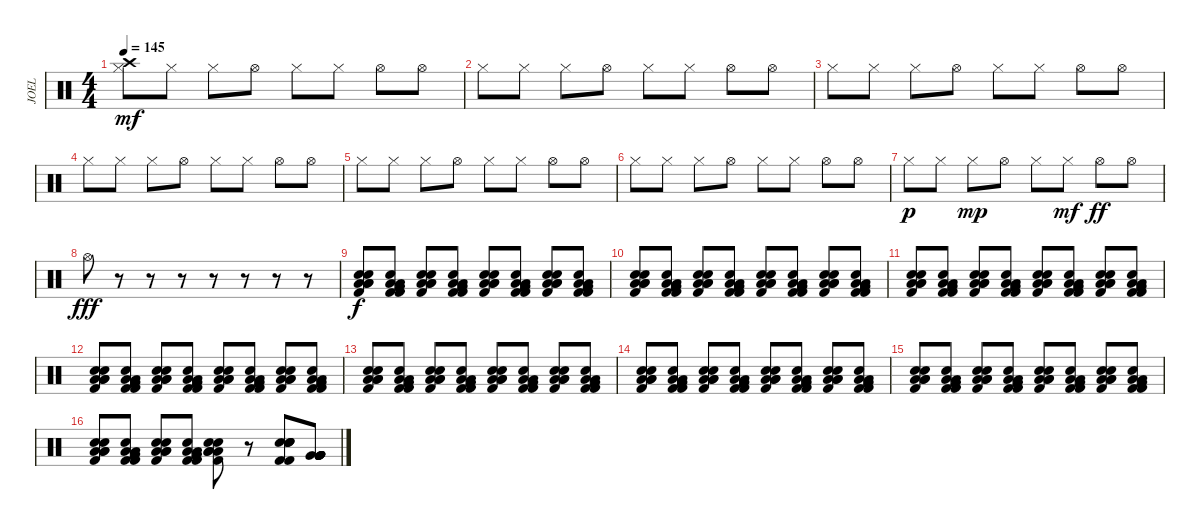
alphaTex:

\track ("JOEL" "JOEL") {instrument percussion}
\staff {score}
\articulation defaults
\ts (4 4)
\tempo 145
\clef neutral
\ks c
("Crash high (hit)" "Hi-Hat (closed)").8{dy mf} "Hi-Hat (closed)".8 "Hi-Hat (closed)".8 "Hi-Hat (open)".8 "Hi-Hat (closed)".8 "Hi-Hat (closed)".8 "Hi-Hat (open)".8 "Hi-Hat (open)".8 |
"Hi-Hat (closed)".8 "Hi-Hat (closed)".8 "Hi-Hat (closed)".8 "Hi-Hat (open)".8 "Hi-Hat (closed)".8 "Hi-Hat (closed)".8 "Hi-Hat (open)".8 "Hi-Hat (open)".8 |
"Hi-Hat (closed)".8 "Hi-Hat (closed)".8 "Hi-Hat (closed)".8 "Hi-Hat (open)".8 "Hi-Hat (closed)".8 "Hi-Hat (closed)".8 "Hi-Hat (open)".8 "Hi-Hat (open)".8 |
"Hi-Hat (closed)".8 "Hi-Hat (closed)".8 "Hi-Hat (closed)".8 "Hi-Hat (open)".8 "Hi-Hat (closed)".8 "Hi-Hat (closed)".8 "Hi-Hat (open)".8 "Hi-Hat (open)".8 |
"Hi-Hat (closed)".8 "Hi-Hat (closed)".8 "Hi-Hat (closed)".8 "Hi-Hat (open)".8 "Hi-Hat (closed)".8 "Hi-Hat (closed)".8 "Hi-Hat (open)".8 "Hi-Hat (open)".8 |
"Hi-Hat (closed)".8 "Hi-Hat (closed)".8 "Hi-Hat (closed)".8 "Hi-Hat (open)".8 "Hi-Hat (closed)".8 "Hi-Hat (closed)".8 "Hi-Hat (open)".8 "Hi-Hat (open)".8 |
"Hi-Hat (closed)".8{dy p} "Hi-Hat (closed)".8 "Hi-Hat (closed)".8{dy mp} "Hi-Hat (open)".8 "Hi-Hat (closed)".8 "Hi-Hat (closed)".8{dy mf} "Hi-Hat (open)".8{dy ff} "Hi-Hat (open)".8 |
"Hi-Hat (open)".8{dy fff} r.8 r.8 r.8 r.8 r.8 r.8 r.8 |
("Low Floor Tom (hit)" "Kick (hit) 2" "Low Floor Tom (hit)" "Electric Snare (hit)" "Low Floor Tom (hit)" "Snare (hit) 2").8{dy f} ("Low Floor Tom (hit)" "Kick (hit) 2" "Low Floor Tom (hit)" "Electric Snare (hit)" "Very Low Tom (hit)" "Kick (hit) 2").8 ("Low Floor Tom (hit)" "Kick (hit) 2" "Low Floor Tom (hit)" "Electric Snare (hit)" "Low Floor Tom (hit)" "Snare (hit) 2").8 ("Low Floor Tom (hit)" "Kick (hit) 2" "Low Floor Tom (hit)" "Electric Snare (hit)" "Very Low Tom (hit)" "Kick (hit) 2").8 ("Low Floor Tom (hit)" "Kick (hit) 2" "Low Floor Tom (hit)" "Electric Snare (hit)" "Low Floor Tom (hit)" "Snare (hit) 2").8 ("Low Floor Tom (hit)" "Kick (hit) 2" "Low Floor Tom (hit)" "Electric Snare (hit)" "Very Low Tom (hit)" "Kick (hit) 2").8 ("Low Floor Tom (hit)" "Kick (hit) 2" "Low Floor Tom (hit)" "Electric Snare (hit)" "Low Floor Tom (hit)" "Snare (hit) 2").8 ("Low Floor Tom (hit)" "Kick (hit) 2" "Low Floor Tom (hit)" "Electric Snare (hit)" "Very Low Tom (hit)" "Kick (hit) 2").8 |
("Low Floor Tom (hit)" "Kick (hit) 2" "Low Floor Tom (hit)" "Electric Snare (hit)" "Low Floor Tom (hit)" "Snare (hit) 2").8 ("Low Floor Tom (hit)" "Kick (hit) 2" "Low Floor Tom (hit)" "Electric Snare (hit)" "Very Low Tom (hit)" "Kick (hit) 2").8 ("Low Floor Tom (hit)" "Kick (hit) 2" "Low Floor Tom (hit)" "Electric Snare (hit)" "Low Floor Tom (hit)" "Snare (hit) 2").8 ("Low Floor Tom (hit)" "Kick (hit) 2" "Low Floor Tom (hit)" "Electric Snare (hit)" "Very Low Tom (hit)" "Kick (hit) 2").8 ("Low Floor Tom (hit)" "Kick (hit) 2" "Low Floor Tom (hit)" "Electric Snare (hit)" "Low Floor Tom (hit)" "Snare (hit) 2").8 ("Low Floor Tom (hit)" "Kick (hit) 2" "Low Floor Tom (hit)" "Electric Snare (hit)" "Very Low Tom (hit)" "Kick (hit) 2").8 ("Low Floor Tom (hit)" "Kick (hit) 2" "Low Floor Tom (hit)" "Electric Snare (hit)" "Low Floor Tom (hit)" "Snare (hit) 2").8 ("Low Floor Tom (hit)" "Kick (hit) 2" "Low Floor Tom (hit)" "Electric Snare (hit)" "Very Low Tom (hit)" "Kick (hit) 2").8 |
("Low Floor Tom (hit)" "Kick (hit) 2" "Low Floor Tom (hit)" "Electric Snare (hit)" "Low Floor Tom (hit)" "Snare (hit) 2").8 ("Low Floor Tom (hit)" "Kick (hit) 2" "Low Floor Tom (hit)" "Electric Snare (hit)" "Very Low Tom (hit)" "Kick (hit) 2").8 ("Low Floor Tom (hit)" "Kick (hit) 2" "Low Floor Tom (hit)" "Electric Snare (hit)" "Low Floor Tom (hit)" "Snare (hit) 2").8 ("Low Floor Tom (hit)" "Kick (hit) 2" "Low Floor Tom (hit)" "Electric Snare (hit)" "Very Low Tom (hit)" "Kick (hit) 2").8 ("Low Floor Tom (hit)" "Kick (hit) 2" "Low Floor Tom (hit)" "Electric Snare (hit)" "Low Floor Tom (hit)" "Snare (hit) 2").8 ("Low Floor Tom (hit)" "Kick (hit) 2" "Low Floor Tom (hit)" "Electric Snare (hit)" "Very Low Tom (hit)" "Kick (hit) 2").8 ("Low Floor Tom (hit)" "Kick (hit) 2" "Low Floor Tom (hit)" "Electric Snare (hit)" "Low Floor Tom (hit)" "Snare (hit) 2").8 ("Low Floor Tom (hit)" "Kick (hit) 2" "Low Floor Tom (hit)" "Electric Snare (hit)" "Very Low Tom (hit)" "Kick (hit) 2").8 |
("Low Floor Tom (hit)" "Kick (hit) 2" "Low Floor Tom (hit)" "Electric Snare (hit)" "Low Floor Tom (hit)" "Snare (hit) 2").8 ("Low Floor Tom (hit)" "Kick (hit) 2" "Low Floor Tom (hit)" "Electric Snare (hit)" "Very Low Tom (hit)" "Kick (hit) 2").8 ("Low Floor Tom (hit)" "Kick (hit) 2" "Low Floor Tom (hit)" "Electric Snare (hit)" "Low Floor Tom (hit)" "Snare (hit) 2").8 ("Low Floor Tom (hit)" "Kick (hit) 2" "Low Floor Tom (hit)" "Electric Snare (hit)" "Very Low Tom (hit)" "Kick (hit) 2").8 ("Low Floor Tom (hit)" "Kick (hit) 2" "Low Floor Tom (hit)" "Electric Snare (hit)" "Low Floor Tom (hit)" "Snare (hit) 2").8 ("Low Floor Tom (hit)" "Kick (hit) 2" "Low Floor Tom (hit)" "Electric Snare (hit)" "Very Low Tom (hit)" "Kick (hit) 2").8 ("Low Floor Tom (hit)" "Kick (hit) 2" "Low Floor Tom (hit)" "Electric Snare (hit)" "Low Floor Tom (hit)" "Snare (hit) 2").8 ("Low Floor Tom (hit)" "Kick (hit) 2" "Low Floor Tom (hit)" "Electric Snare (hit)" "Very Low Tom (hit)" "Kick (hit) 2").8 |
("Low Floor Tom (hit)" "Kick (hit) 2" "Low Floor Tom (hit)" "Electric Snare (hit)" "Low Floor Tom (hit)" "Snare (hit) 2").8 ("Low Floor Tom (hit)" "Kick (hit) 2" "Low Floor Tom (hit)" "Electric Snare (hit)" "Very Low Tom (hit)" "Kick (hit) 2").8 ("Low Floor Tom (hit)" "Kick (hit) 2" "Low Floor Tom (hit)" "Electric Snare (hit)" "Low Floor Tom (hit)" "Snare (hit) 2").8 ("Low Floor Tom (hit)" "Kick (hit) 2" "Low Floor Tom (hit)" "Electric Snare (hit)" "Very Low Tom (hit)" "Kick (hit) 2").8 ("Low Floor Tom (hit)" "Kick (hit) 2" "Low Floor Tom (hit)" "Electric Snare (hit)" "Low Floor Tom (hit)" "Snare (hit) 2").8 ("Low Floor Tom (hit)" "Kick (hit) 2" "Low Floor Tom (hit)" "Electric Snare (hit)" "Very Low Tom (hit)" "Kick (hit) 2").8 ("Low Floor Tom (hit)" "Kick (hit) 2" "Low Floor Tom (hit)" "Electric Snare (hit)" "Low Floor Tom (hit)" "Snare (hit) 2").8 ("Low Floor Tom (hit)" "Kick (hit) 2" "Low Floor Tom (hit)" "Electric Snare (hit)" "Very Low Tom (hit)" "Kick (hit) 2").8 |
("Low Floor Tom (hit)" "Kick (hit) 2" "Low Floor Tom (hit)" "Electric Snare (hit)" "Low Floor Tom (hit)" "Snare (hit) 2").8 ("Low Floor Tom (hit)" "Kick (hit) 2" "Low Floor Tom (hit)" "Electric Snare (hit)" "Very Low Tom (hit)" "Kick (hit) 2").8 ("Low Floor Tom (hit)" "Kick (hit) 2" "Low Floor Tom (hit)" "Electric Snare (hit)" "Low Floor Tom (hit)" "Snare (hit) 2").8 ("Low Floor Tom (hit)" "Kick (hit) 2" "Low Floor Tom (hit)" "Electric Snare (hit)" "Very Low Tom (hit)" "Kick (hit) 2").8 ("Low Floor Tom (hit)" "Kick (hit) 2" "Low Floor Tom (hit)" "Electric Snare (hit)" "Low Floor Tom (hit)" "Snare (hit) 2").8 ("Low Floor Tom (hit)" "Kick (hit) 2" "Low Floor Tom (hit)" "Electric Snare (hit)" "Very Low Tom (hit)" "Kick (hit) 2").8 ("Low Floor Tom (hit)" "Kick (hit) 2" "Low Floor Tom (hit)" "Electric Snare (hit)" "Low Floor Tom (hit)" "Snare (hit) 2").8 ("Low Floor Tom (hit)" "Kick (hit) 2" "Low Floor Tom (hit)" "Electric Snare (hit)" "Very Low Tom (hit)" "Kick (hit) 2").8 |
("Low Floor Tom (hit)" "Kick (hit) 2" "Low Floor Tom (hit)" "Electric Snare (hit)" "Low Floor Tom (hit)" "Snare (hit) 2").8 ("Low Floor Tom (hit)" "Kick (hit) 2" "Low Floor Tom (hit)" "Electric Snare (hit)" "Very Low Tom (hit)" "Kick (hit) 2").8 ("Low Floor Tom (hit)" "Kick (hit) 2" "Low Floor Tom (hit)" "Electric Snare (hit)" "Low Floor Tom (hit)" "Snare (hit) 2").8 ("Low Floor Tom (hit)" "Kick (hit) 2" "Low Floor Tom (hit)" "Electric Snare (hit)" "Very Low Tom (hit)" "Kick (hit) 2").8 ("Low Floor Tom (hit)" "Kick (hit) 2" "Low Floor Tom (hit)" "Electric Snare (hit)" "Low Floor Tom (hit)" "Snare (hit) 2").8 ("Low Floor Tom (hit)" "Kick (hit) 2" "Low Floor Tom (hit)" "Electric Snare (hit)" "Very Low Tom (hit)" "Kick (hit) 2").8 ("Low Floor Tom (hit)" "Kick (hit) 2" "Low Floor Tom (hit)" "Electric Snare (hit)" "Low Floor Tom (hit)" "Snare (hit) 2").8 ("Low Floor Tom (hit)" "Kick (hit) 2" "Low Floor Tom (hit)" "Electric Snare (hit)" "Very Low Tom (hit)" "Kick (hit) 2").8 |
("Low Floor Tom (hit)" "Kick (hit) 2" "Low Floor Tom (hit)" "Electric Snare (hit)" "Low Floor Tom (hit)" "Snare (hit) 2").8 ("Low Floor Tom (hit)" "Kick (hit) 2" "Low Floor Tom (hit)" "Electric Snare (hit)" "Very Low Tom (hit)" "Kick (hit) 2").8 ("Low Floor Tom (hit)" "Kick (hit) 2" "Low Floor Tom (hit)" "Electric Snare (hit)" "Low Floor Tom (hit)" "Snare (hit) 2").8 ("Low Floor Tom (hit)" "Kick (hit) 2" "Low Floor Tom (hit)" "Electric Snare (hit)" "Very Low Tom (hit)" "Kick (hit) 2").8 ("Low Floor Tom (hit)" "Kick (hit) 2" "Low Floor Tom (hit)" "Electric Snare (hit)" "Low Floor Tom (hit)" "Snare (hit) 2").8 r.8 ("Kick (hit) 2" "Kick (hit) 2" "Electric Snare (hit)" "Electric Snare (hit)" "Electric Snare (hit)" "Electric Snare (hit)").8 ("Very Low Tom (hit)" "Very Low Tom (hit)" "Very Low Tom (hit)" "Very Low Tom (hit)" "Very Low Tom (hit)" "Very Low Tom (hit)").8
